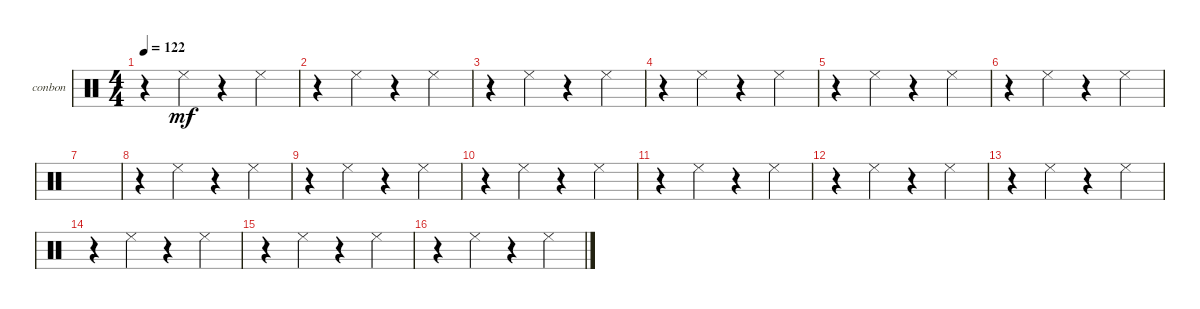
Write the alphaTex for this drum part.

\defaultSystemsLayout 4
\bracketExtendMode groupsimilarinstruments
\firstSystemTrackNameOrientation horizontal
\otherSystemsTrackNameOrientation horizontal
\track ("Bongos N Congas" "conbon") {instrument percussion}
\staff {score}
\articulation defaults
\ts (4 4)
\tempo 122
\clef neutral
\ks c
r.4{dy mf} "Cowbell low (tip)".4 r.4 "Cowbell low (tip)".4 |
r.4 "Cowbell low (tip)".4 r.4 "Cowbell low (tip)".4 |
r.4 "Cowbell low (tip)".4 r.4 "Cowbell low (tip)".4 |
r.4 "Cowbell low (tip)".4 r.4 "Cowbell low (tip)".4 |
r.4 "Cowbell low (tip)".4 r.4 "Cowbell low (tip)".4 |
r.4 "Cowbell low (tip)".4 r.4 "Cowbell low (tip)".4 |
\scale
0.531977 |
\scale
0.468023 r.4 "Cowbell low (tip)".4 r.4 "Cowbell low (tip)".4 |
r.4 "Cowbell low (tip)".4 r.4 "Cowbell low (tip)".4 |
r.4 "Cowbell low (tip)".4 r.4 "Cowbell low (tip)".4 |
r.4 "Cowbell low (tip)".4 r.4 "Cowbell low (tip)".4 |
r.4 "Cowbell low (tip)".4 r.4 "Cowbell low (tip)".4 |
\scale
0.268041 r.4 "Cowbell low (tip)".4 r.4 "Cowbell low (tip)".4 |
r.4 "Cowbell low (tip)".4 r.4 "Cowbell low (tip)".4 |
r.4 "Cowbell low (tip)".4 r.4 "Cowbell low (tip)".4 |
r.4 "Cowbell low (tip)".4 r.4 "Cowbell low (tip)".4
